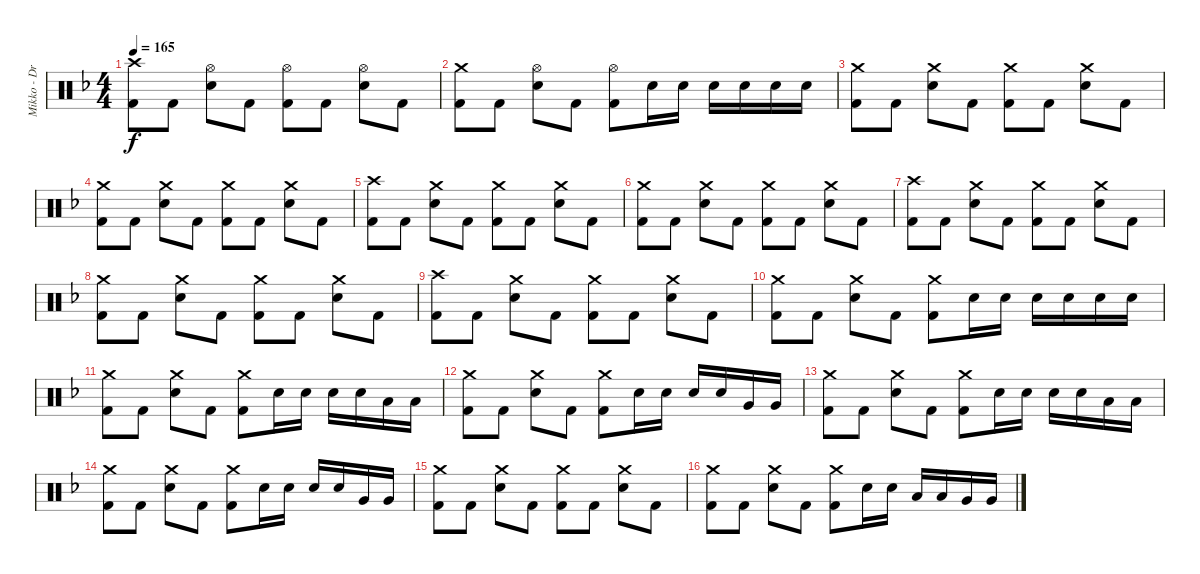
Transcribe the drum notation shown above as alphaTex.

\track ("Mikko - Drums" "Mikko - Dr") {instrument percussion}
\staff {score}
\articulation defaults
\ts (4 4)
\tempo 165
\clef neutral
\ks dminor
("Crash high (hit)" "Kick (hit) 2").8{dy f} "Kick (hit) 2".8 ("Hi-Hat (open)" "Snare (hit) 2").8 "Kick (hit) 2".8 ("Hi-Hat (open)" "Kick (hit) 2").8 "Kick (hit) 2".8 ("Hi-Hat (open)" "Snare (hit) 2").8 "Kick (hit) 2".8 |
("Crash medium (hit)" "Kick (hit) 2").8 "Kick (hit) 2".8 ("Hi-Hat (open)" "Snare (hit) 2").8 "Kick (hit) 2".8 ("Hi-Hat (open)" "Kick (hit) 2").8 "Snare (hit) 2".16 "Snare (hit) 2".16 "Snare (hit) 2".16 "Snare (hit) 2".16 "Snare (hit) 2".16 "Snare (hit) 2".16 |
("Crash medium (hit)" "Kick (hit) 2").8 "Kick (hit) 2".8 ("Crash medium (hit)" "Snare (hit) 2").8 "Kick (hit) 2".8 ("Crash medium (hit)" "Kick (hit) 2").8 "Kick (hit) 2".8 ("Crash medium (hit)" "Snare (hit) 2").8 "Kick (hit) 2".8 |
("Crash medium (hit)" "Kick (hit) 2").8 "Kick (hit) 2".8 ("Crash medium (hit)" "Snare (hit) 2").8 "Kick (hit) 2".8 ("Crash medium (hit)" "Kick (hit) 2").8 "Kick (hit) 2".8 ("Crash medium (hit)" "Snare (hit) 2").8 "Kick (hit) 2".8 |
("Crash high (hit)" "Kick (hit) 2").8 "Kick (hit) 2".8 ("Crash medium (hit)" "Snare (hit) 2").8 "Kick (hit) 2".8 ("Crash medium (hit)" "Kick (hit) 2").8 "Kick (hit) 2".8 ("Crash medium (hit)" "Snare (hit) 2").8 "Kick (hit) 2".8 |
("Crash medium (hit)" "Kick (hit) 2").8 "Kick (hit) 2".8 ("Crash medium (hit)" "Snare (hit) 2").8 "Kick (hit) 2".8 ("Crash medium (hit)" "Kick (hit) 2").8 "Kick (hit) 2".8 ("Crash medium (hit)" "Snare (hit) 2").8 "Kick (hit) 2".8 |
("Crash high (hit)" "Kick (hit) 2").8 "Kick (hit) 2".8 ("Crash medium (hit)" "Snare (hit) 2").8 "Kick (hit) 2".8 ("Crash medium (hit)" "Kick (hit) 2").8 "Kick (hit) 2".8 ("Crash medium (hit)" "Snare (hit) 2").8 "Kick (hit) 2".8 |
("Crash medium (hit)" "Kick (hit) 2").8 "Kick (hit) 2".8 ("Crash medium (hit)" "Snare (hit) 2").8 "Kick (hit) 2".8 ("Crash medium (hit)" "Kick (hit) 2").8 "Kick (hit) 2".8 ("Crash medium (hit)" "Snare (hit) 2").8 "Kick (hit) 2".8 |
("Crash high (hit)" "Kick (hit) 2").8 "Kick (hit) 2".8 ("Crash medium (hit)" "Snare (hit) 2").8 "Kick (hit) 2".8 ("Crash medium (hit)" "Kick (hit) 2").8 "Kick (hit) 2".8 ("Crash medium (hit)" "Snare (hit) 2").8 "Kick (hit) 2".8 |
("Crash medium (hit)" "Kick (hit) 2").8 "Kick (hit) 2".8 ("Crash medium (hit)" "Snare (hit) 2").8 "Kick (hit) 2".8 ("Crash medium (hit)" "Kick (hit) 2").8 "Snare (hit) 2".16 "Snare (hit) 2".16 "Snare (hit) 2".16 "Snare (hit) 2".16 "Snare (hit) 2".16 "Snare (hit) 2".16 |
("Crash medium (hit)" "Kick (hit) 2").8 "Kick (hit) 2".8 ("Crash medium (hit)" "Snare (hit) 2").8 "Kick (hit) 2".8 ("Crash medium (hit)" "Kick (hit) 2").8 "Snare (hit) 2".16 "Snare (hit) 2".16 "Snare (hit) 2".16 "Snare (hit) 2".16 "Low Tom (hit)".16 "Low Tom (hit)".16 |
("Crash medium (hit)" "Kick (hit) 2").8 "Kick (hit) 2".8 ("Crash medium (hit)" "Snare (hit) 2").8 "Kick (hit) 2".8 ("Crash medium (hit)" "Kick (hit) 2").8 "Snare (hit) 2".16 "Snare (hit) 2".16 "Snare (hit) 2".16 "Snare (hit) 2".16 "Very Low Tom (hit)".16 "Very Low Tom (hit)".16 |
("Crash medium (hit)" "Kick (hit) 2").8 "Kick (hit) 2".8 ("Crash medium (hit)" "Snare (hit) 2").8 "Kick (hit) 2".8 ("Crash medium (hit)" "Kick (hit) 2").8 "Snare (hit) 2".16 "Snare (hit) 2".16 "Snare (hit) 2".16 "Snare (hit) 2".16 "Low Tom (hit)".16 "Low Tom (hit)".16 |
("Crash medium (hit)" "Kick (hit) 2").8 "Kick (hit) 2".8 ("Crash medium (hit)" "Snare (hit) 2").8 "Kick (hit) 2".8 ("Crash medium (hit)" "Kick (hit) 2").8 "Snare (hit) 2".16 "Snare (hit) 2".16 "Snare (hit) 2".16 "Snare (hit) 2".16 "Very Low Tom (hit)".16 "Very Low Tom (hit)".16 |
("Crash medium (hit)" "Kick (hit) 2").8 "Kick (hit) 2".8 ("Crash medium (hit)" "Snare (hit) 2").8 "Kick (hit) 2".8 ("Crash medium (hit)" "Kick (hit) 2").8 "Kick (hit) 2".8 ("Crash medium (hit)" "Snare (hit) 2").8 "Kick (hit) 2".8 |
("Crash medium (hit)" "Kick (hit) 2").8 "Kick (hit) 2".8 ("Crash medium (hit)" "Snare (hit) 2").8 "Kick (hit) 2".8 ("Crash medium (hit)" "Kick (hit) 2").8 "Snare (hit) 2".16 "Snare (hit) 2".16 "Low Tom (hit)".16 "Low Tom (hit)".16 "Very Low Tom (hit)".16 "Very Low Tom (hit)".16
